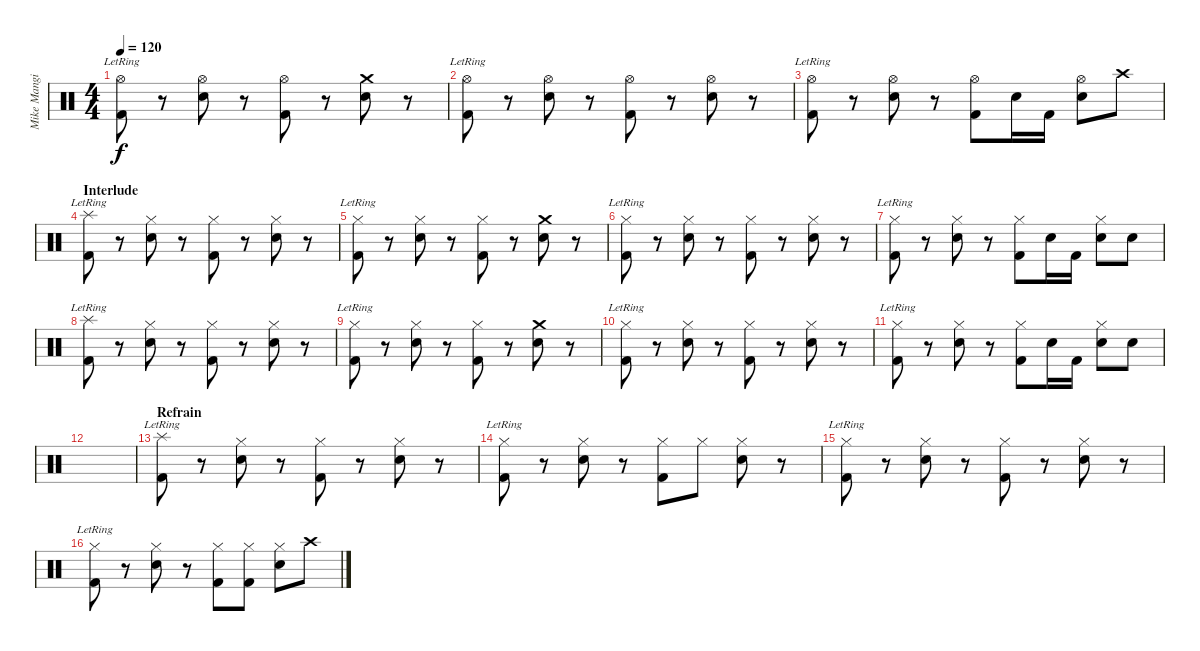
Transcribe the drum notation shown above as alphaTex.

\track ("Mike Mangini" "Mike Mangi") {instrument percussion}
\staff {score}
\articulation defaults
\ts (4 4)
\tempo 120
\clef neutral
\ks c
("Hi-Hat (open)" "Kick (hit) 2"{lr}).8{dy f} r.8 ("Hi-Hat (open)" "Snare (hit) 2").8 r.8 ("Hi-Hat (open)" "Kick (hit) 2").8 r.8 ("Crash medium (hit)" "Snare (hit) 2").8 r.8 |
("Hi-Hat (open)" "Kick (hit) 2"{lr}).8 r.8 ("Hi-Hat (open)" "Snare (hit) 2").8 r.8 ("Hi-Hat (open)" "Kick (hit) 2").8 r.8 ("Hi-Hat (open)" "Snare (hit) 2").8 r.8 |
("Hi-Hat (open)" "Kick (hit) 2"{lr}).8 r.8 ("Hi-Hat (open)" "Snare (hit) 2").8 r.8 ("Hi-Hat (open)" "Kick (hit) 2").8 "Snare (hit) 2".16 "Kick (hit) 2".16 ("Hi-Hat (open)" "Snare (hit) 2").8 "Crash high (hit)".8 |
\section ("" "Interlude")
("Splash (hit)" "Kick (hit) 2"{lr}).8 r.8 ("Hi-Hat (closed)" "Snare (hit) 2").8 r.8 ("Hi-Hat (closed)" "Kick (hit) 2").8 r.8 ("Hi-Hat (closed)" "Snare (hit) 2").8 r.8 |
("Hi-Hat (closed)" "Kick (hit) 2"{lr}).8 r.8 ("Hi-Hat (closed)" "Snare (hit) 2").8 r.8 ("Hi-Hat (closed)" "Kick (hit) 2").8 r.8 ("Crash medium (hit)" "Snare (hit) 2").8 r.8 |
("Hi-Hat (closed)" "Kick (hit) 2"{lr}).8 r.8 ("Hi-Hat (closed)" "Snare (hit) 2").8 r.8 ("Hi-Hat (closed)" "Kick (hit) 2").8 r.8 ("Hi-Hat (closed)" "Snare (hit) 2").8 r.8 |
("Hi-Hat (closed)" "Kick (hit) 2"{lr}).8 r.8 ("Hi-Hat (closed)" "Snare (hit) 2").8 r.8 ("Hi-Hat (closed)" "Kick (hit) 2").8 "Snare (hit) 2".16 "Kick (hit) 2".16 ("Hi-Hat (closed)" "Snare (hit) 2").8 "Snare (hit) 2".8 |
("Splash (hit)" "Kick (hit) 2"{lr}).8 r.8 ("Hi-Hat (closed)" "Snare (hit) 2").8 r.8 ("Hi-Hat (closed)" "Kick (hit) 2").8 r.8 ("Hi-Hat (closed)" "Snare (hit) 2").8 r.8 |
("Hi-Hat (closed)" "Kick (hit) 2"{lr}).8 r.8 ("Hi-Hat (closed)" "Snare (hit) 2").8 r.8 ("Hi-Hat (closed)" "Kick (hit) 2").8 r.8 ("Crash medium (hit)" "Snare (hit) 2").8 r.8 |
("Hi-Hat (closed)" "Kick (hit) 2"{lr}).8 r.8 ("Hi-Hat (closed)" "Snare (hit) 2").8 r.8 ("Hi-Hat (closed)" "Kick (hit) 2").8 r.8 ("Hi-Hat (closed)" "Snare (hit) 2").8 r.8 |
("Hi-Hat (closed)" "Kick (hit) 2"{lr}).8 r.8 ("Hi-Hat (closed)" "Snare (hit) 2").8 r.8 ("Hi-Hat (closed)" "Kick (hit) 2").8 "Snare (hit) 2".16 "Kick (hit) 2".16 ("Hi-Hat (closed)" "Snare (hit) 2").8 "Snare (hit) 2".8 |
|
\section ("" "Refrain")
("Splash (hit)" "Kick (hit) 2"{lr}).8 r.8 ("Hi-Hat (closed)" "Snare (hit) 2").8 r.8 ("Hi-Hat (closed)" "Kick (hit) 2").8 r.8 ("Hi-Hat (closed)" "Snare (hit) 2").8 r.8 |
("Hi-Hat (closed)" "Kick (hit) 2"{lr}).8 r.8 ("Hi-Hat (closed)" "Snare (hit) 2").8 r.8 ("Hi-Hat (closed)" "Kick (hit) 2").8 "Hi-Hat (closed)".8 ("Hi-Hat (closed)" "Snare (hit) 2").8 r.8 |
("Hi-Hat (closed)" "Kick (hit) 2"{lr}).8 r.8 ("Hi-Hat (closed)" "Snare (hit) 2").8 r.8 ("Hi-Hat (closed)" "Kick (hit) 2").8 r.8 ("Hi-Hat (closed)" "Snare (hit) 2").8 r.8 |
("Hi-Hat (closed)" "Kick (hit) 2"{lr}).8 r.8 ("Hi-Hat (closed)" "Snare (hit) 2").8 r.8 ("Hi-Hat (closed)" "Kick (hit) 2").8 ("Hi-Hat (closed)" "Kick (hit) 2").8 ("Hi-Hat (closed)" "Snare (hit) 2").8 "Crash high (hit)".8
